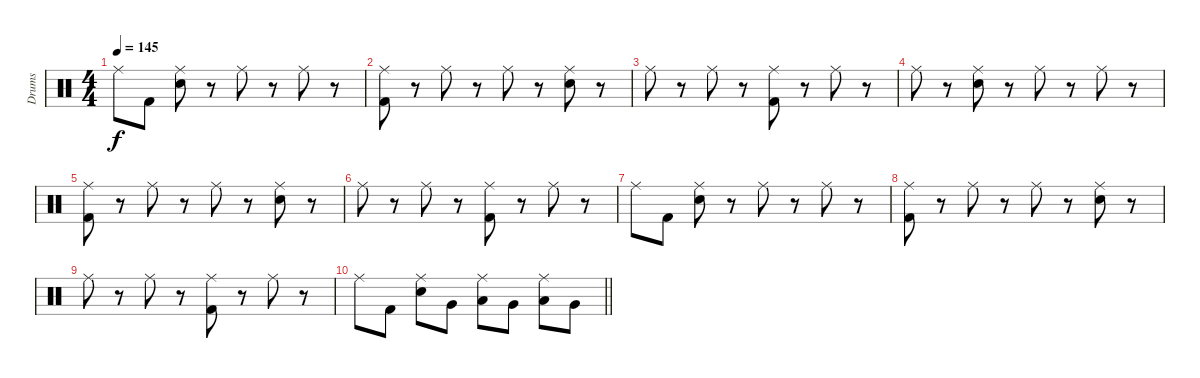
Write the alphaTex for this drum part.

\track ("Drums" "Drums") {instrument percussion}
\staff {score}
\articulation defaults
\ts (4 4)
\tempo 145
\clef neutral
\ks c "Ride (middle)".8{dy f} "Kick (hit) 2".8
("Ride (middle)" "Electric Snare (hit)").8 r.8 "Ride (middle)".8 r.8 "Ride (middle)".8 r.8 |
("Ride (middle)" "Kick (hit) 2").8 r.8 "Ride (middle)".8 r.8 "Ride (middle)".8 r.8 ("Ride (middle)" "Electric Snare (hit)").8 r.8 |
"Ride (middle)".8 r.8 "Ride (middle)".8 r.8 ("Ride (middle)" "Kick (hit) 2").8 r.8 "Ride (middle)".8 r.8 |
"Ride (middle)".8 r.8 ("Ride (middle)" "Electric Snare (hit)").8 r.8 "Ride (middle)".8 r.8 "Ride (middle)".8 r.8 |
("Ride (middle)" "Kick (hit) 2").8 r.8 "Ride (middle)".8 r.8 "Ride (middle)".8 r.8 ("Ride (middle)" "Electric Snare (hit)").8 r.8 |
"Ride (middle)".8 r.8 "Ride (middle)".8 r.8 ("Ride (middle)" "Kick (hit) 2").8 r.8 "Ride (middle)".8 r.8 |
"Ride (middle)".8 "Kick (hit) 2".8 ("Ride (middle)" "Electric Snare (hit)").8 r.8 "Ride (middle)".8 r.8 "Ride (middle)".8 r.8 |
("Ride (middle)" "Kick (hit) 2").8 r.8 "Ride (middle)".8 r.8 "Ride (middle)".8 r.8 ("Ride (middle)" "Electric Snare (hit)").8 r.8 |
"Ride (middle)".8 r.8 "Ride (middle)".8 r.8 ("Ride (middle)" "Kick (hit) 2").8 r.8 "Ride (middle)".8 r.8 |
\barLineRight lightlight "Ride (middle)".8 "Kick (hit) 2".8
("Ride (middle)" "Electric Snare (hit)").8 "Very Low Tom (hit)".8 ("Ride (middle)" "Low Tom (hit)").8 "Very Low Tom (hit)".8 ("Ride (middle)" "Low Floor Tom (hit)").8 "Very Low Tom (hit)".8
